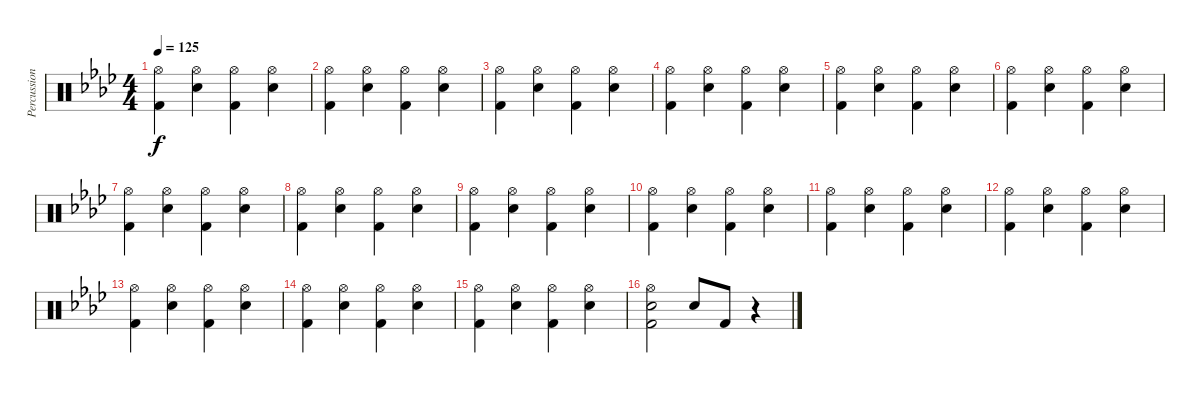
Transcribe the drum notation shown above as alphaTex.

\track ("Percussion" "Percussion") {instrument percussion}
\staff {score}
\articulation defaults
\ts (4 4)
\tempo 125
\clef neutral
\ks fminor
("Hi-Hat (open)" "Kick (hit) 2").4{dy f} ("Hi-Hat (open)" "Snare (hit) 2").4 ("Hi-Hat (open)" "Kick (hit) 2").4 ("Hi-Hat (open)" "Snare (hit) 2").4 |
("Hi-Hat (open)" "Kick (hit) 2").4 ("Hi-Hat (open)" "Snare (hit) 2").4 ("Hi-Hat (open)" "Kick (hit) 2").4 ("Hi-Hat (open)" "Snare (hit) 2").4 |
("Hi-Hat (open)" "Kick (hit) 2").4 ("Hi-Hat (open)" "Snare (hit) 2").4 ("Hi-Hat (open)" "Kick (hit) 2").4 ("Hi-Hat (open)" "Snare (hit) 2").4 |
("Hi-Hat (open)" "Kick (hit) 2").4 ("Hi-Hat (open)" "Snare (hit) 2").4 ("Hi-Hat (open)" "Kick (hit) 2").4 ("Hi-Hat (open)" "Snare (hit) 2").4 |
("Hi-Hat (open)" "Kick (hit) 2").4 ("Hi-Hat (open)" "Snare (hit) 2").4 ("Hi-Hat (open)" "Kick (hit) 2").4 ("Hi-Hat (open)" "Snare (hit) 2").4 |
("Hi-Hat (open)" "Kick (hit) 2").4 ("Hi-Hat (open)" "Snare (hit) 2").4 ("Hi-Hat (open)" "Kick (hit) 2").4 ("Hi-Hat (open)" "Snare (hit) 2").4 |
("Hi-Hat (open)" "Kick (hit) 2").4 ("Hi-Hat (open)" "Snare (hit) 2").4 ("Hi-Hat (open)" "Kick (hit) 2").4 ("Hi-Hat (open)" "Snare (hit) 2").4 |
("Hi-Hat (open)" "Kick (hit) 2").4 ("Hi-Hat (open)" "Snare (hit) 2").4 ("Hi-Hat (open)" "Kick (hit) 2").4 ("Hi-Hat (open)" "Snare (hit) 2").4 |
("Hi-Hat (open)" "Kick (hit) 2").4 ("Hi-Hat (open)" "Snare (hit) 2").4 ("Hi-Hat (open)" "Kick (hit) 2").4 ("Hi-Hat (open)" "Snare (hit) 2").4 |
("Hi-Hat (open)" "Kick (hit) 2").4 ("Hi-Hat (open)" "Snare (hit) 2").4 ("Hi-Hat (open)" "Kick (hit) 2").4 ("Hi-Hat (open)" "Snare (hit) 2").4 |
("Hi-Hat (open)" "Kick (hit) 2").4 ("Hi-Hat (open)" "Snare (hit) 2").4 ("Hi-Hat (open)" "Kick (hit) 2").4 ("Hi-Hat (open)" "Snare (hit) 2").4 |
("Hi-Hat (open)" "Kick (hit) 2").4 ("Hi-Hat (open)" "Snare (hit) 2").4 ("Hi-Hat (open)" "Kick (hit) 2").4 ("Hi-Hat (open)" "Snare (hit) 2").4 |
("Hi-Hat (open)" "Kick (hit) 2").4 ("Hi-Hat (open)" "Snare (hit) 2").4 ("Hi-Hat (open)" "Kick (hit) 2").4 ("Hi-Hat (open)" "Snare (hit) 2").4 |
("Hi-Hat (open)" "Kick (hit) 2").4 ("Hi-Hat (open)" "Snare (hit) 2").4 ("Hi-Hat (open)" "Kick (hit) 2").4 ("Hi-Hat (open)" "Snare (hit) 2").4 |
("Hi-Hat (open)" "Kick (hit) 2").4 ("Hi-Hat (open)" "Snare (hit) 2").4 ("Hi-Hat (open)" "Kick (hit) 2").4 ("Hi-Hat (open)" "Snare (hit) 2").4 |
("Hi-Hat (open)" "Snare (hit) 2" "Kick (hit) 2").2 "Snare (hit) 2".8 "Kick (hit) 2".8 r.4
